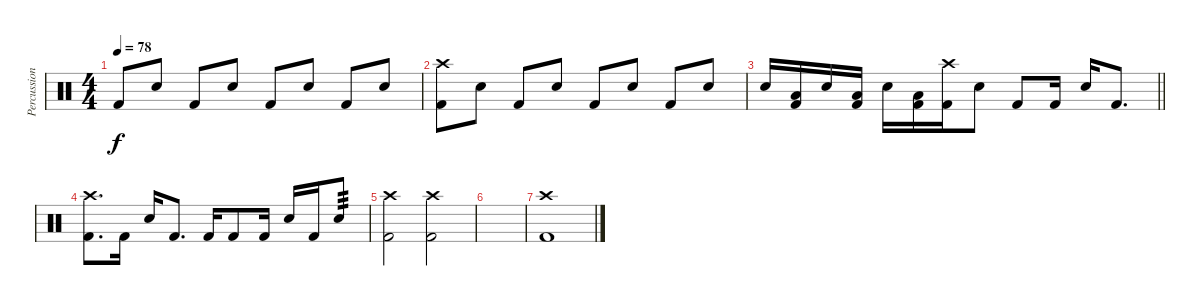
\track ("Percussion" "Percussion") {instrument percussion}
\staff {score}
\articulation defaults
\ts (4 4)
\tempo 78
\clef neutral
\ks c "Kick (hit) 2".8{dy f} "Snare (hit) 2".8 "Kick (hit) 2".8 "Snare (hit) 2".8 "Kick (hit) 2".8 "Snare (hit) 2".8 "Kick (hit) 2".8 "Snare (hit) 2".8
|
("Kick (hit) 2" "Crash high (hit)").8 "Snare (hit) 2".8 "Kick (hit) 2".8 "Snare (hit) 2".8 "Kick (hit) 2".8 "Snare (hit) 2".8 "Kick (hit) 2".8 "Snare (hit) 2".8 |
\barLineRight lightlight "Snare (hit) 2".16
("Kick (hit) 2" "Low Floor Tom (hit)").16 "Snare (hit) 2".16 ("Kick (hit) 2" "Low Floor Tom (hit)").16 "Snare (hit) 2".16 ("Kick (hit) 2" "Low Floor Tom (hit)").16 ("Kick (hit) 2" "Crash high (hit)").16 "Snare (hit) 2".8 "Kick (hit) 2".8 "Kick (hit) 2".16 "Snare (hit) 2".16 "Kick (hit) 2".8{d} |
("Kick (hit) 2" "Crash high (hit)").8{d} "Kick (hit) 2".16 "Snare (hit) 2".16 "Kick (hit) 2".8{d} "Kick (hit) 2".16 "Kick (hit) 2".8 "Kick (hit) 2".16 "Snare (hit) 2".16 "Kick (hit) 2".16 "Snare (hit) 2".8{tp 3} |
("Kick (hit) 2" "Crash high (hit)").2 ("Kick (hit) 2" "Crash high (hit)").2 |
|
("Kick (hit) 2" "Crash high (hit)").1
